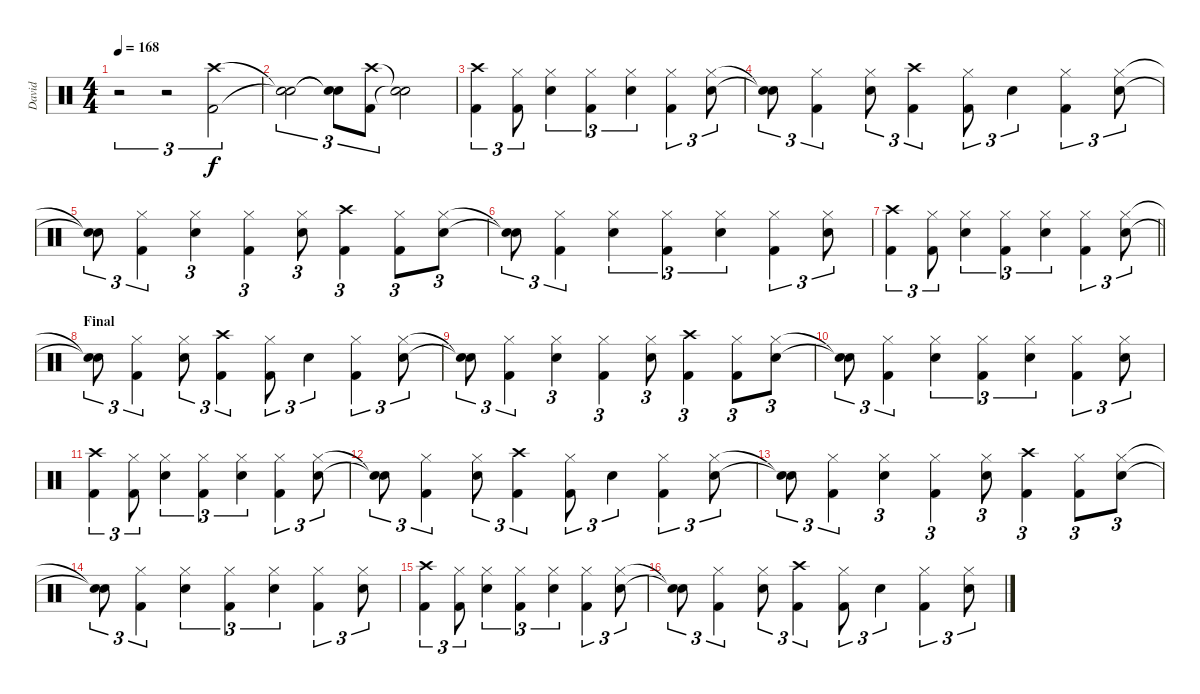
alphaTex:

\track ("David" "David") {instrument percussion}
\staff {score}
\articulation defaults
\ts (4 4)
\tempo 168
\clef neutral
\ks c
r.2{tu (3 2) dy f} r.2{tu (3 2)} ("Crash high (hit)" "Kick (hit) 2").2{tu (3 2)} |
("Snare (hit)"{t} "Snare (hit)"{t}).2{tu (3 2)} ("Snare (hit)"{t} "Snare (hit)"{t}).8{tu (3 2)} ("Crash high (hit)" "Kick (hit) 2").8{tu (3 2)} ("Snare (hit)"{t} "Snare (hit)"{t}).2 |
("Crash high (hit)" "Kick (hit) 2").4{tu (3 2)} ("Hi-Hat (closed)" "Kick (hit) 2").8{tu (3 2)} ("Hi-Hat (closed)" "Snare (hit) 2").4{tu (3 2)} ("Hi-Hat (closed)" "Kick (hit) 2").4{tu (3 2)} ("Hi-Hat (closed)" "Snare (hit) 2").4{tu (3 2)} ("Hi-Hat (closed)" "Kick (hit) 2").4{tu (3 2)} ("Hi-Hat (closed)" "Snare (hit) 2").8{tu (3 2)} |
("Snare (hit)"{t} "Snare (hit)"{t}).8{tu (3 2)} ("Hi-Hat (closed)" "Kick (hit) 2").4{tu (3 2)} ("Hi-Hat (closed)" "Snare (hit) 2").8{tu (3 2)} ("Crash high (hit)" "Kick (hit) 2").4{tu (3 2)} ("Hi-Hat (closed)" "Kick (hit) 2").8{tu (3 2)} "Snare (hit) 2".4{tu (3 2)} ("Hi-Hat (closed)" "Kick (hit) 2").4{tu (3 2)} ("Hi-Hat (closed)" "Snare (hit) 2").8{tu (3 2)} |
("Snare (hit)"{t} "Snare (hit)"{t}).8{tu (3 2)} ("Hi-Hat (closed)" "Kick (hit) 2").4{tu (3 2)} ("Hi-Hat (closed)" "Snare (hit) 2").4{tu (3 2)} ("Hi-Hat (closed)" "Kick (hit) 2").4{tu (3 2)} ("Hi-Hat (closed)" "Snare (hit) 2").8{tu (3 2)} ("Crash high (hit)" "Kick (hit) 2").4{tu (3 2)} ("Hi-Hat (closed)" "Kick (hit) 2").8{tu (3 2)} ("Hi-Hat (closed)" "Snare (hit) 2").8{tu (3 2)} |
("Snare (hit)"{t} "Snare (hit)"{t}).8{tu (3 2)} ("Hi-Hat (closed)" "Kick (hit) 2").4{tu (3 2)} ("Hi-Hat (closed)" "Snare (hit) 2").4{tu (3 2)} ("Hi-Hat (closed)" "Kick (hit) 2").4{tu (3 2)} ("Hi-Hat (closed)" "Snare (hit) 2").4{tu (3 2)} ("Hi-Hat (closed)" "Kick (hit) 2").4{tu (3 2)} ("Hi-Hat (closed)" "Snare (hit) 2").8{tu (3 2)} |
\barLineRight lightlight
("Crash high (hit)" "Kick (hit) 2").4{tu (3 2)} ("Hi-Hat (closed)" "Kick (hit) 2").8{tu (3 2)} ("Hi-Hat (closed)" "Snare (hit) 2").4{tu (3 2)} ("Hi-Hat (closed)" "Kick (hit) 2").4{tu (3 2)} ("Hi-Hat (closed)" "Snare (hit) 2").4{tu (3 2)} ("Hi-Hat (closed)" "Kick (hit) 2").4{tu (3 2)} ("Hi-Hat (closed)" "Snare (hit) 2").8{tu (3 2)} |
\section ("" "Final")
("Snare (hit)"{t} "Snare (hit)"{t}).8{tu (3 2)} ("Hi-Hat (closed)" "Kick (hit) 2").4{tu (3 2)} ("Hi-Hat (closed)" "Snare (hit) 2").8{tu (3 2)} ("Crash high (hit)" "Kick (hit) 2").4{tu (3 2)} ("Hi-Hat (closed)" "Kick (hit) 2").8{tu (3 2)} "Snare (hit) 2".4{tu (3 2)} ("Hi-Hat (closed)" "Kick (hit) 2").4{tu (3 2)} ("Hi-Hat (closed)" "Snare (hit) 2").8{tu (3 2)} |
("Snare (hit)"{t} "Snare (hit)"{t}).8{tu (3 2)} ("Hi-Hat (closed)" "Kick (hit) 2").4{tu (3 2)} ("Hi-Hat (closed)" "Snare (hit) 2").4{tu (3 2)} ("Hi-Hat (closed)" "Kick (hit) 2").4{tu (3 2)} ("Hi-Hat (closed)" "Snare (hit) 2").8{tu (3 2)} ("Crash high (hit)" "Kick (hit) 2").4{tu (3 2)} ("Hi-Hat (closed)" "Kick (hit) 2").8{tu (3 2)} ("Hi-Hat (closed)" "Snare (hit) 2").8{tu (3 2)} |
("Snare (hit)"{t} "Snare (hit)"{t}).8{tu (3 2)} ("Hi-Hat (closed)" "Kick (hit) 2").4{tu (3 2)} ("Hi-Hat (closed)" "Snare (hit) 2").4{tu (3 2)} ("Hi-Hat (closed)" "Kick (hit) 2").4{tu (3 2)} ("Hi-Hat (closed)" "Snare (hit) 2").4{tu (3 2)} ("Hi-Hat (closed)" "Kick (hit) 2").4{tu (3 2)} ("Hi-Hat (closed)" "Snare (hit) 2").8{tu (3 2)} |
("Crash high (hit)" "Kick (hit) 2").4{tu (3 2)} ("Hi-Hat (closed)" "Kick (hit) 2").8{tu (3 2)} ("Hi-Hat (closed)" "Snare (hit) 2").4{tu (3 2)} ("Hi-Hat (closed)" "Kick (hit) 2").4{tu (3 2)} ("Hi-Hat (closed)" "Snare (hit) 2").4{tu (3 2)} ("Hi-Hat (closed)" "Kick (hit) 2").4{tu (3 2)} ("Hi-Hat (closed)" "Snare (hit) 2").8{tu (3 2)} |
("Snare (hit)"{t} "Snare (hit)"{t}).8{tu (3 2)} ("Hi-Hat (closed)" "Kick (hit) 2").4{tu (3 2)} ("Hi-Hat (closed)" "Snare (hit) 2").8{tu (3 2)} ("Crash high (hit)" "Kick (hit) 2").4{tu (3 2)} ("Hi-Hat (closed)" "Kick (hit) 2").8{tu (3 2)} "Snare (hit) 2".4{tu (3 2)} ("Hi-Hat (closed)" "Kick (hit) 2").4{tu (3 2)} ("Hi-Hat (closed)" "Snare (hit) 2").8{tu (3 2)} |
("Snare (hit)"{t} "Snare (hit)"{t}).8{tu (3 2)} ("Hi-Hat (closed)" "Kick (hit) 2").4{tu (3 2)} ("Hi-Hat (closed)" "Snare (hit) 2").4{tu (3 2)} ("Hi-Hat (closed)" "Kick (hit) 2").4{tu (3 2)} ("Hi-Hat (closed)" "Snare (hit) 2").8{tu (3 2)} ("Crash high (hit)" "Kick (hit) 2").4{tu (3 2)} ("Hi-Hat (closed)" "Kick (hit) 2").8{tu (3 2)} ("Hi-Hat (closed)" "Snare (hit) 2").8{tu (3 2)} |
("Snare (hit)"{t} "Snare (hit)"{t}).8{tu (3 2)} ("Hi-Hat (closed)" "Kick (hit) 2").4{tu (3 2)} ("Hi-Hat (closed)" "Snare (hit) 2").4{tu (3 2)} ("Hi-Hat (closed)" "Kick (hit) 2").4{tu (3 2)} ("Hi-Hat (closed)" "Snare (hit) 2").4{tu (3 2)} ("Hi-Hat (closed)" "Kick (hit) 2").4{tu (3 2)} ("Hi-Hat (closed)" "Snare (hit) 2").8{tu (3 2)} |
("Crash high (hit)" "Kick (hit) 2").4{tu (3 2)} ("Hi-Hat (closed)" "Kick (hit) 2").8{tu (3 2)} ("Hi-Hat (closed)" "Snare (hit) 2").4{tu (3 2)} ("Hi-Hat (closed)" "Kick (hit) 2").4{tu (3 2)} ("Hi-Hat (closed)" "Snare (hit) 2").4{tu (3 2)} ("Hi-Hat (closed)" "Kick (hit) 2").4{tu (3 2)} ("Hi-Hat (closed)" "Snare (hit) 2").8{tu (3 2)} |
("Snare (hit)"{t} "Snare (hit)"{t}).8{tu (3 2)} ("Hi-Hat (closed)" "Kick (hit) 2").4{tu (3 2)} ("Hi-Hat (closed)" "Snare (hit) 2").8{tu (3 2)} ("Crash high (hit)" "Kick (hit) 2").4{tu (3 2)} ("Hi-Hat (closed)" "Kick (hit) 2").8{tu (3 2)} "Snare (hit) 2".4{tu (3 2)} ("Hi-Hat (closed)" "Kick (hit) 2").4{tu (3 2)} ("Hi-Hat (closed)" "Snare (hit) 2").8{tu (3 2)}
